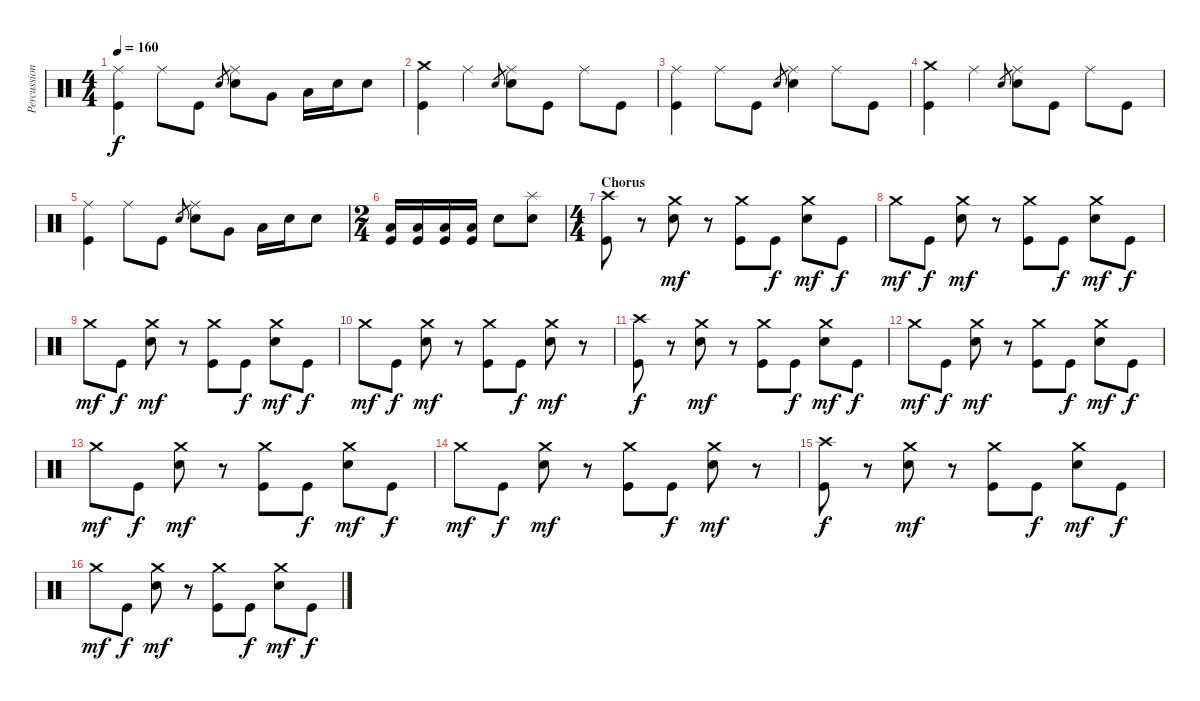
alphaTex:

\track ("Percussion" "Percussion") {instrument percussion}
\staff {score}
\articulation defaults
\ts (4 4)
\tempo 160
\clef neutral
\ks c
("Ride (middle)" "Kick (hit)").4{dy f} "Ride (middle)".8 "Kick (hit)".8 "Electric Snare (hit)".8{gr} ("Ride (middle)" "Electric Snare (hit)").8 "Very Low Tom (hit)".8 "Low Floor Tom (hit)".16 "Electric Snare (hit)".16 "Electric Snare (hit)".8 |
("Crash medium (hit)" "Kick (hit)").4 "Ride (middle)".4 "Electric Snare (hit)".8{gr} ("Ride (middle)" "Electric Snare (hit)").8 "Kick (hit)".8 "Ride (middle)".8 "Kick (hit)".8 |
("Ride (middle)" "Kick (hit)").4 "Ride (middle)".8 "Kick (hit)".8 "Electric Snare (hit)".8{gr} ("Ride (middle)" "Electric Snare (hit)").4 "Ride (middle)".8 "Kick (hit)".8 |
("Crash medium (hit)" "Kick (hit)").4 "Ride (middle)".4 "Electric Snare (hit)".8{gr} ("Ride (middle)" "Electric Snare (hit)").8 "Kick (hit)".8 "Ride (middle)".8 "Kick (hit)".8 |
("Ride (middle)" "Kick (hit)").4 "Ride (middle)".8 "Kick (hit)".8 "Electric Snare (hit)".8{gr} ("Ride (middle)" "Electric Snare (hit)").8 "Very Low Tom (hit)".8 "Low Floor Tom (hit)".16 "Electric Snare (hit)".16 "Electric Snare (hit)".8 |
\ts (2 4)
("Low Floor Tom (hit)" "Kick (hit)").16 ("Low Floor Tom (hit)" "Kick (hit)").16 ("Low Floor Tom (hit)" "Kick (hit)").16 ("Low Floor Tom (hit)" "Kick (hit)").16 "Electric Snare (hit)".8 ("Electric Snare (hit)" "Splash (hit)").8 |
\ts (4 4)
\section ("" "Chorus")
("Kick (hit)" "Crash high (hit)").8 r.8 ("Electric Snare (hit)" "Crash medium (hit)").8{dy mf} r.8 ("Kick (hit)" "Crash medium (hit)").8 "Kick (hit)".8{dy f} ("Electric Snare (hit)" "Crash medium (hit)").8{dy mf} "Kick (hit)".8{dy f} |
"Crash medium (hit)".8{dy mf} "Kick (hit)".8{dy f} ("Electric Snare (hit)" "Crash medium (hit)").8{dy mf} r.8 ("Kick (hit)" "Crash medium (hit)").8 "Kick (hit)".8{dy f} ("Electric Snare (hit)" "Crash medium (hit)").8{dy mf} "Kick (hit)".8{dy f} |
"Crash medium (hit)".8{dy mf} "Kick (hit)".8{dy f} ("Electric Snare (hit)" "Crash medium (hit)").8{dy mf} r.8 ("Kick (hit)" "Crash medium (hit)").8 "Kick (hit)".8{dy f} ("Electric Snare (hit)" "Crash medium (hit)").8{dy mf} "Kick (hit)".8{dy f} |
"Crash medium (hit)".8{dy mf} "Kick (hit)".8{dy f} ("Electric Snare (hit)" "Crash medium (hit)").8{dy mf} r.8 ("Kick (hit)" "Crash medium (hit)").8 "Kick (hit)".8{dy f} ("Electric Snare (hit)" "Crash medium (hit)").8{dy mf} r.8 |
("Kick (hit)" "Crash high (hit)").8{dy f} r.8 ("Electric Snare (hit)" "Crash medium (hit)").8{dy mf} r.8 ("Kick (hit)" "Crash medium (hit)").8 "Kick (hit)".8{dy f} ("Electric Snare (hit)" "Crash medium (hit)").8{dy mf} "Kick (hit)".8{dy f} |
"Crash medium (hit)".8{dy mf} "Kick (hit)".8{dy f} ("Electric Snare (hit)" "Crash medium (hit)").8{dy mf} r.8 ("Kick (hit)" "Crash medium (hit)").8 "Kick (hit)".8{dy f} ("Electric Snare (hit)" "Crash medium (hit)").8{dy mf} "Kick (hit)".8{dy f} |
"Crash medium (hit)".8{dy mf} "Kick (hit)".8{dy f} ("Electric Snare (hit)" "Crash medium (hit)").8{dy mf} r.8 ("Kick (hit)" "Crash medium (hit)").8 "Kick (hit)".8{dy f} ("Electric Snare (hit)" "Crash medium (hit)").8{dy mf} "Kick (hit)".8{dy f} |
"Crash medium (hit)".8{dy mf} "Kick (hit)".8{dy f} ("Electric Snare (hit)" "Crash medium (hit)").8{dy mf} r.8 ("Kick (hit)" "Crash medium (hit)").8 "Kick (hit)".8{dy f} ("Electric Snare (hit)" "Crash medium (hit)").8{dy mf} r.8 |
("Kick (hit)" "Crash high (hit)").8{dy f} r.8 ("Electric Snare (hit)" "Crash medium (hit)").8{dy mf} r.8 ("Kick (hit)" "Crash medium (hit)").8 "Kick (hit)".8{dy f} ("Electric Snare (hit)" "Crash medium (hit)").8{dy mf} "Kick (hit)".8{dy f} |
"Crash medium (hit)".8{dy mf} "Kick (hit)".8{dy f} ("Electric Snare (hit)" "Crash medium (hit)").8{dy mf} r.8 ("Kick (hit)" "Crash medium (hit)").8 "Kick (hit)".8{dy f} ("Electric Snare (hit)" "Crash medium (hit)").8{dy mf} "Kick (hit)".8{dy f}
